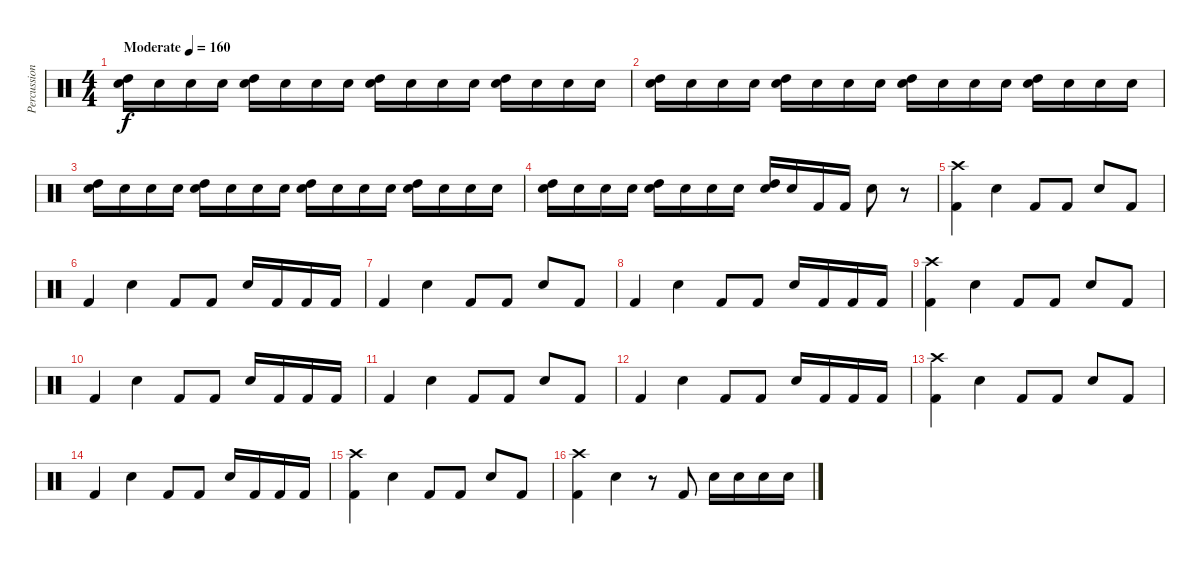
\track ("Percussion" "Percussion") {instrument percussion}
\staff {score}
\articulation defaults
\ts (4 4)
\tempo (160 "Moderate")
\clef neutral
\ks c
("Electric Snare (hit)" "High Tom (hit)").16{dy f} "Electric Snare (hit)".16 "Electric Snare (hit)".16 "Electric Snare (hit)".16 ("Electric Snare (hit)" "High Tom (hit)").16 "Electric Snare (hit)".16 "Electric Snare (hit)".16 "Electric Snare (hit)".16 ("Electric Snare (hit)" "High Tom (hit)").16 "Electric Snare (hit)".16 "Electric Snare (hit)".16 "Electric Snare (hit)".16 ("Electric Snare (hit)" "High Tom (hit)").16 "Electric Snare (hit)".16 "Electric Snare (hit)".16 "Electric Snare (hit)".16 |
("Electric Snare (hit)" "High Tom (hit)").16 "Electric Snare (hit)".16 "Electric Snare (hit)".16 "Electric Snare (hit)".16 ("Electric Snare (hit)" "High Tom (hit)").16 "Electric Snare (hit)".16 "Electric Snare (hit)".16 "Electric Snare (hit)".16 ("Electric Snare (hit)" "High Tom (hit)").16 "Electric Snare (hit)".16 "Electric Snare (hit)".16 "Electric Snare (hit)".16 ("Electric Snare (hit)" "High Tom (hit)").16 "Electric Snare (hit)".16 "Electric Snare (hit)".16 "Electric Snare (hit)".16 |
("Electric Snare (hit)" "High Tom (hit)").16 "Electric Snare (hit)".16 "Electric Snare (hit)".16 "Electric Snare (hit)".16 ("Electric Snare (hit)" "High Tom (hit)").16 "Electric Snare (hit)".16 "Electric Snare (hit)".16 "Electric Snare (hit)".16 ("Electric Snare (hit)" "High Tom (hit)").16 "Electric Snare (hit)".16 "Electric Snare (hit)".16 "Electric Snare (hit)".16 ("Electric Snare (hit)" "High Tom (hit)").16 "Electric Snare (hit)".16 "Electric Snare (hit)".16 "Electric Snare (hit)".16 |
("Electric Snare (hit)" "High Tom (hit)").16 "Electric Snare (hit)".16 "Electric Snare (hit)".16 "Electric Snare (hit)".16 ("Electric Snare (hit)" "High Tom (hit)").16 "Electric Snare (hit)".16 "Electric Snare (hit)".16 "Electric Snare (hit)".16 ("Electric Snare (hit)" "High Tom (hit)").16 "Electric Snare (hit)".16 "Kick (hit) 2".16 "Kick (hit) 2".16 "Electric Snare (hit)".8 r.8 |
("Kick (hit) 2" "Crash high (hit)").4 "Electric Snare (hit)".4 "Kick (hit) 2".8 "Kick (hit) 2".8 "Electric Snare (hit)".8 "Kick (hit) 2".8 |
"Kick (hit) 2".4 "Electric Snare (hit)".4 "Kick (hit) 2".8 "Kick (hit) 2".8 "Electric Snare (hit)".16 "Kick (hit) 2".16 "Kick (hit) 2".16 "Kick (hit) 2".16 |
"Kick (hit) 2".4 "Electric Snare (hit)".4 "Kick (hit) 2".8 "Kick (hit) 2".8 "Electric Snare (hit)".8 "Kick (hit) 2".8 |
"Kick (hit) 2".4 "Electric Snare (hit)".4 "Kick (hit) 2".8 "Kick (hit) 2".8 "Electric Snare (hit)".16 "Kick (hit) 2".16 "Kick (hit) 2".16 "Kick (hit) 2".16 |
("Kick (hit) 2" "Crash high (hit)").4 "Electric Snare (hit)".4 "Kick (hit) 2".8 "Kick (hit) 2".8 "Electric Snare (hit)".8 "Kick (hit) 2".8 |
"Kick (hit) 2".4 "Electric Snare (hit)".4 "Kick (hit) 2".8 "Kick (hit) 2".8 "Electric Snare (hit)".16 "Kick (hit) 2".16 "Kick (hit) 2".16 "Kick (hit) 2".16 |
"Kick (hit) 2".4 "Electric Snare (hit)".4 "Kick (hit) 2".8 "Kick (hit) 2".8 "Electric Snare (hit)".8 "Kick (hit) 2".8 |
"Kick (hit) 2".4 "Electric Snare (hit)".4 "Kick (hit) 2".8 "Kick (hit) 2".8 "Electric Snare (hit)".16 "Kick (hit) 2".16 "Kick (hit) 2".16 "Kick (hit) 2".16 |
("Kick (hit) 2" "Crash high (hit)").4 "Electric Snare (hit)".4 "Kick (hit) 2".8 "Kick (hit) 2".8 "Electric Snare (hit)".8 "Kick (hit) 2".8 |
"Kick (hit) 2".4 "Electric Snare (hit)".4 "Kick (hit) 2".8 "Kick (hit) 2".8 "Electric Snare (hit)".16 "Kick (hit) 2".16 "Kick (hit) 2".16 "Kick (hit) 2".16 |
("Kick (hit) 2" "Crash high (hit)").4 "Electric Snare (hit)".4 "Kick (hit) 2".8 "Kick (hit) 2".8 "Electric Snare (hit)".8 "Kick (hit) 2".8 |
("Kick (hit) 2" "Crash high (hit)").4 "Electric Snare (hit)".4 r.8 "Kick (hit) 2".8 "Electric Snare (hit)".16 "Electric Snare (hit)".16 "Electric Snare (hit)".16 "Electric Snare (hit)".16
